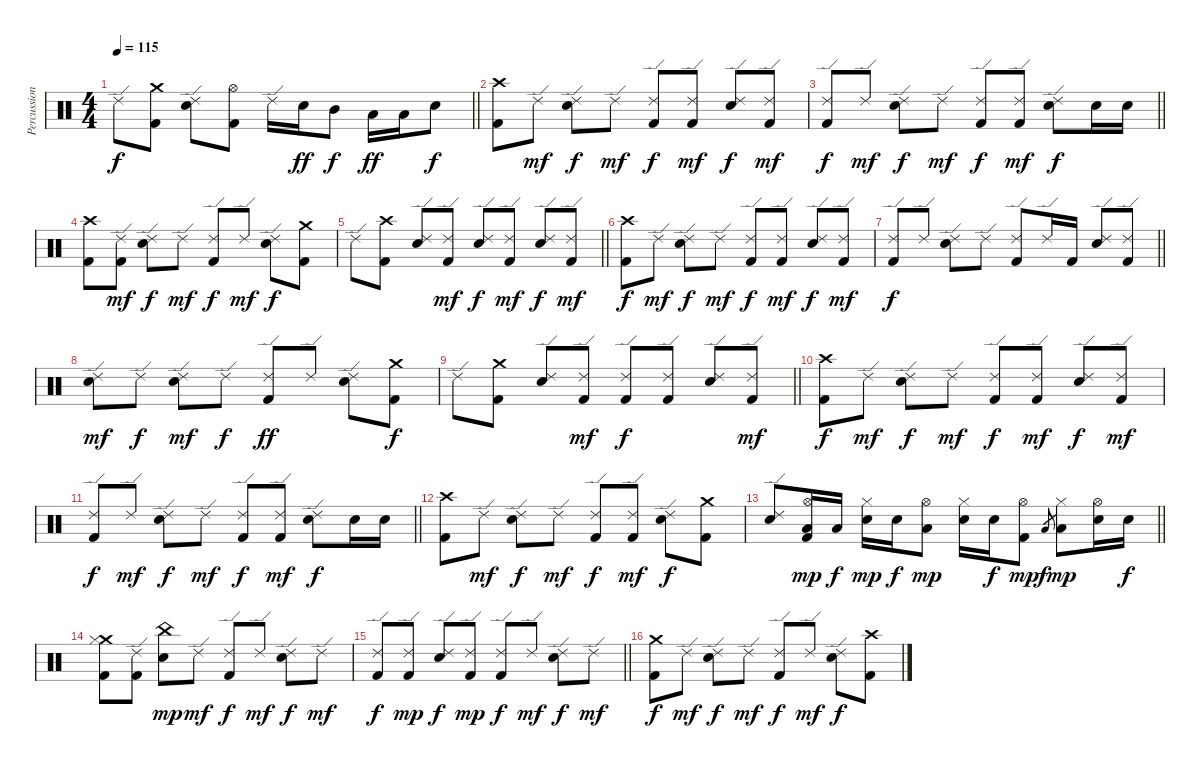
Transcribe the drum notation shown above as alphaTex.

\track ("Percussion" "Percussion") {instrument percussion}
\staff {score}
\articulation defaults
\ts (4 4)
\tempo 115
\clef neutral
\barLineRight lightlight
\ks c "Ride (edge) 2".8{dy f}
("Crash medium (hit)" "Kick (hit) 2").8 ("Ride (edge) 2" "Electric Snare (hit)").8 ("Hi-Hat (open)" "Kick (hit) 2").8 "Ride (edge) 2".16 "Electric Snare (hit)".16{dy ff} "Mid Tom (hit)".8{dy f} "Low Tom (hit)".16{dy ff} "Low Tom (hit)".16 "Electric Snare (hit)".8{dy f} |
("Crash high (hit)" "Kick (hit) 2").8 "Ride (edge) 2".8{dy mf} ("Ride (edge) 2" "Electric Snare (hit)").8{dy f} "Ride (edge) 2".8{dy mf} ("Ride (edge) 2" "Kick (hit) 2").8{dy f} ("Ride (edge) 2" "Kick (hit) 2").8{dy mf} ("Ride (edge) 2" "Electric Snare (hit)").8{dy f} ("Ride (edge) 2" "Kick (hit) 2").8{dy mf} |
\barLineRight lightlight
("Ride (edge) 2" "Kick (hit) 2").8{dy f} "Ride (edge) 2".8{dy mf} ("Ride (edge) 2" "Electric Snare (hit)").8{dy f} "Ride (edge) 2".8{dy mf} ("Ride (edge) 2" "Kick (hit) 2").8{dy f} ("Ride (edge) 2" "Kick (hit) 2").8{dy mf} ("Ride (edge) 2" "Electric Snare (hit)").8{dy f} "Electric Snare (hit)".16 "Electric Snare (hit)".16 |
("Crash high (hit)" "Kick (hit) 2").8 ("Ride (edge) 2" "Kick (hit) 2").8{dy mf} ("Ride (edge) 2" "Electric Snare (hit)").8{dy f} "Ride (edge) 2".8{dy mf} ("Ride (edge) 2" "Kick (hit) 2").8{dy f} "Ride (edge) 2".8{dy mf} ("Ride (edge) 2" "Electric Snare (hit)").8{dy f} ("Crash medium (hit)" "Kick (hit) 2").8 |
\barLineRight lightlight "Ride (edge) 2".8
("Crash high (hit)" "Kick (hit) 2").8 ("Ride (edge) 2" "Electric Snare (hit)").8 ("Ride (edge) 2" "Kick (hit) 2").8{dy mf} ("Ride (edge) 2" "Electric Snare (hit)").8{dy f} ("Ride (edge) 2" "Kick (hit) 2").8{dy mf} ("Ride (edge) 2" "Electric Snare (hit)").8{dy f} ("Ride (edge) 2" "Kick (hit) 2").8{dy mf} |
("Crash high (hit)" "Kick (hit) 2").8{dy f} "Ride (edge) 2".8{dy mf} ("Ride (edge) 2" "Electric Snare (hit)").8{dy f} "Ride (edge) 2".8{dy mf} ("Ride (edge) 2" "Kick (hit) 2").8{dy f} ("Ride (edge) 2" "Kick (hit) 2").8{dy mf} ("Ride (edge) 2" "Electric Snare (hit)").8{dy f} ("Ride (edge) 2" "Kick (hit) 2").8{dy mf} |
\barLineRight lightlight
("Ride (edge) 2" "Kick (hit) 2").8{dy f} "Ride (edge) 2".8 ("Ride (edge) 2" "Electric Snare (hit)").8 "Ride (edge) 2".8 ("Ride (edge) 2" "Kick (hit) 2").8 "Ride (edge) 2".16 "Kick (hit) 2".16 ("Ride (edge) 2" "Electric Snare (hit)").8 ("Ride (edge) 2" "Kick (hit) 2").8 |
("Ride (edge) 2" "Electric Snare (hit)").8{dy mf} "Ride (edge) 2".8{dy f} ("Ride (edge) 2" "Electric Snare (hit)").8{dy mf} "Ride (edge) 2".8{dy f} ("Ride (edge) 2" "Kick (hit) 2").8{dy ff} "Ride (edge) 2".8 ("Ride (edge) 2" "Electric Snare (hit)").8 ("Crash medium (hit)" "Kick (hit) 2").8{dy f} |
\barLineRight lightlight "Ride (edge) 2".8
("Crash medium (hit)" "Kick (hit) 2").8 ("Ride (edge) 2" "Electric Snare (hit)").8 ("Ride (edge) 2" "Kick (hit) 2").8{dy mf} ("Ride (edge) 2" "Kick (hit) 2").8{dy f} ("Ride (edge) 2" "Kick (hit) 2").8 ("Ride (edge) 2" "Electric Snare (hit)").8 ("Ride (edge) 2" "Kick (hit) 2").8{dy mf} |
("Crash high (hit)" "Kick (hit) 2").8{dy f} "Ride (edge) 2".8{dy mf} ("Ride (edge) 2" "Electric Snare (hit)").8{dy f} "Ride (edge) 2".8{dy mf} ("Ride (edge) 2" "Kick (hit) 2").8{dy f} ("Ride (edge) 2" "Kick (hit) 2").8{dy mf} ("Ride (edge) 2" "Electric Snare (hit)").8{dy f} ("Ride (edge) 2" "Kick (hit) 2").8{dy mf} |
\barLineRight lightlight
("Ride (edge) 2" "Kick (hit) 2").8{dy f} "Ride (edge) 2".8{dy mf} ("Ride (edge) 2" "Electric Snare (hit)").8{dy f} "Ride (edge) 2".8{dy mf} ("Ride (edge) 2" "Kick (hit) 2").8{dy f} ("Ride (edge) 2" "Kick (hit) 2").8{dy mf} ("Ride (edge) 2" "Electric Snare (hit)").8{dy f} "Electric Snare (hit)".16 "Electric Snare (hit)".16 |
("Crash high (hit)" "Kick (hit) 2").8 "Ride (edge) 2".8{dy mf} ("Ride (edge) 2" "Electric Snare (hit)").8{dy f} "Ride (edge) 2".8{dy mf} ("Ride (edge) 2" "Kick (hit) 2").8{dy f} ("Ride (edge) 2" "Kick (hit) 2").8{dy mf} ("Ride (edge) 2" "Electric Snare (hit)").8{dy f} ("Crash medium (hit)" "Kick (hit) 2").8 |
\barLineRight lightlight
("Ride (edge) 2" "Electric Snare (hit)").8 ("Low Floor Tom (hit)" "Hi-Hat (open)" "Kick (hit) 2").16{dy mp} "Low Floor Tom (hit)".16{dy f} ("Hi-Hat (closed)" "Electric Snare (hit)").16{dy mp} "Electric Snare (hit)".16{dy f} ("Low Tom (hit)" "Hi-Hat (open)").8{dy mp} ("Hi-Hat (closed)" "Electric Snare (hit)").16 "Electric Snare (hit)".16{dy f} ("Hi-Hat (open)" "Kick (hit) 2").8{dy mp} "Low Tom (hit)".8{gr dy f} ("Low Floor Tom (hit)" "Hi-Hat (closed)").8{dy mp} ("Hi-Hat (open)" "Electric Snare (hit)").16 "Electric Snare (hit)".16{dy f} |
("Crash medium (hit)" "Hi-Hat (closed)" "Kick (hit) 2").8 ("Ride (edge) 2" "Kick (hit) 2").8 ("China (hit)" "Electric Snare (hit)").8{dy mp} "Ride (edge) 2".8{dy mf} ("Ride (edge) 2" "Kick (hit) 2").8{dy f} "Ride (edge) 2".8{dy mf} ("Ride (edge) 2" "Electric Snare (hit)").8{dy f} "Ride (edge) 2".8{dy mf} |
\barLineRight lightlight
("Ride (edge) 2" "Kick (hit) 2").8{dy f} ("Ride (edge) 2" "Kick (hit) 2").8{dy mp} ("Ride (edge) 2" "Electric Snare (hit)").8{dy f} ("Ride (edge) 2" "Kick (hit) 2").8{dy mp} ("Ride (edge) 2" "Kick (hit) 2").8{dy f} "Ride (edge) 2".8{dy mf} ("Ride (edge) 2" "Electric Snare (hit)").8{dy f} "Ride (edge) 2".8{dy mf} |
("Crash medium (hit)" "Kick (hit) 2").8{dy f} "Ride (edge) 2".8{dy mf} ("Ride (edge) 2" "Electric Snare (hit)").8{dy f} "Ride (edge) 2".8{dy mf} ("Ride (edge) 2" "Kick (hit) 2").8{dy f} "Ride (edge) 2".8{dy mf} ("Ride (edge) 2" "Electric Snare (hit)").8{dy f} ("Crash high (hit)" "Kick (hit) 2").8
